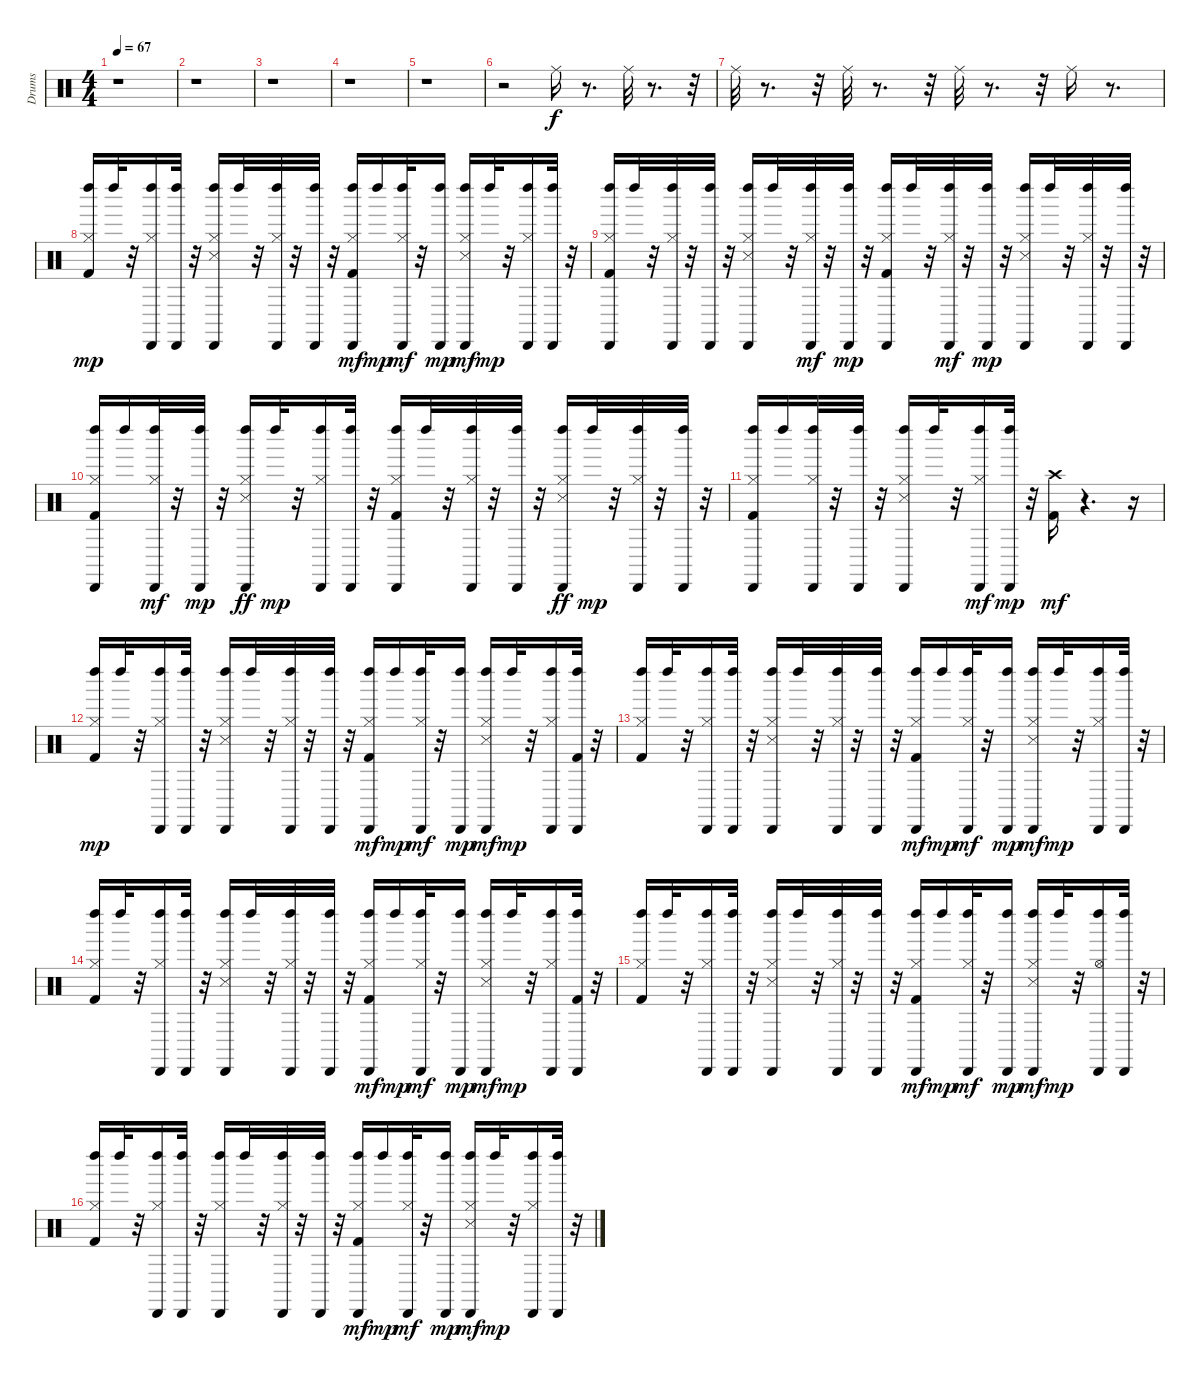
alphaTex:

\track ("Drums" "Drums") {instrument percussion}
\staff {score}
\articulation defaults
\ts (4 4)
\tempo 67
\clef neutral
\ks c
r.1{dy fff} |
r.1 |
r.1 |
r.1 |
r.1 |
r.2 "Ride (middle)".16{dy f} r.8{d} "Ride (middle)".32 r.8{d} r.32 |
"Ride (middle)".32 r.8{d} r.32 "Ride (middle)".32 r.8{d} r.32 "Ride (middle)".32 r.8{d} r.32 "Ride (middle)".16 r.8{d} |
("Kick (hit) 2" "Hi-Hat (closed)" "Left Maraca (hit)").16{dy mp} "Left Maraca (hit)".32 r.32 ("Hi-Hat (closed)" "Cabasa (hit)" "Left Maraca (hit)").16 ("Cabasa (hit)" "Left Maraca (hit)").32 r.32 ("Snare (side stick) 3" "Hi-Hat (closed)" "Cabasa (hit)" "Left Maraca (hit)").16 "Left Maraca (hit)".32 r.32 ("Cabasa (hit)" "Left Maraca (hit)" "Hi-Hat (closed)").32 r.32 ("Cabasa (hit)" "Left Maraca (hit)").32 r.32 ("Hi-Hat (closed)" "Left Maraca (hit)" "Kick (hit) 2" "Cabasa (hit)").16{dy mf} "Left Maraca (hit)".16{dy mp} ("Left Maraca (hit)" "Hi-Hat (closed)" "Cabasa (hit)").32{dy mf} r.32 ("Cabasa (hit)" "Left Maraca (hit)").16{dy mp} ("Left Maraca (hit)" "Snare (side stick) 3" "Hi-Hat (closed)" "Cabasa (hit)").16{dy mf} "Left Maraca (hit)".32{dy mp} r.32 ("Hi-Hat (closed)" "Cabasa (hit)" "Left Maraca (hit)").16 ("Cabasa (hit)" "Left Maraca (hit)").32 r.32 |
("Hi-Hat (closed)" "Cabasa (hit)" "Left Maraca (hit)" "Kick (hit) 2").16 "Left Maraca (hit)".32 r.32 ("Cabasa (hit)" "Left Maraca (hit)" "Hi-Hat (closed)").32 r.32 ("Cabasa (hit)" "Left Maraca (hit)").32 r.32 ("Hi-Hat (closed)" "Cabasa (hit)" "Left Maraca (hit)" "Snare (side stick) 3").16 "Left Maraca (hit)".32 r.32 ("Hi-Hat (closed)" "Left Maraca (hit)" "Cabasa (hit)").32{dy mf} r.32 ("Cabasa (hit)" "Left Maraca (hit)").32{dy mp} r.32 ("Hi-Hat (closed)" "Cabasa (hit)" "Left Maraca (hit)" "Kick (hit) 2").16 "Left Maraca (hit)".32 r.32 ("Hi-Hat (closed)" "Left Maraca (hit)" "Cabasa (hit)").32{dy mf} r.32 ("Cabasa (hit)" "Left Maraca (hit)").32{dy mp} r.32 ("Snare (side stick) 3" "Hi-Hat (closed)" "Cabasa (hit)" "Left Maraca (hit)").16 "Left Maraca (hit)".32 r.32 ("Hi-Hat (closed)" "Cabasa (hit)" "Left Maraca (hit)").32 r.32 ("Cabasa (hit)" "Left Maraca (hit)").32 r.32 |
("Kick (hit) 2" "Hi-Hat (closed)" "Cabasa (hit)" "Left Maraca (hit)").16 "Left Maraca (hit)".16 ("Hi-Hat (closed)" "Left Maraca (hit)" "Cabasa (hit)").32{dy mf} r.32 ("Cabasa (hit)" "Left Maraca (hit)").32{dy mp} r.32 ("Snare (side stick) 3" "Left Maraca (hit)" "Cabasa (hit)" "Hi-Hat (closed)").16{dy ff} "Left Maraca (hit)".32{dy mp} r.32 ("Hi-Hat (closed)" "Cabasa (hit)" "Left Maraca (hit)").16 ("Cabasa (hit)" "Left Maraca (hit)").32 r.32 ("Kick (hit) 2" "Hi-Hat (closed)" "Cabasa (hit)" "Left Maraca (hit)").16 "Left Maraca (hit)".32 r.32 ("Cabasa (hit)" "Left Maraca (hit)" "Hi-Hat (closed)").32 r.32 ("Cabasa (hit)" "Left Maraca (hit)").32 r.32 ("Snare (side stick) 3" "Cabasa (hit)" "Left Maraca (hit)" "Hi-Hat (closed)").16{dy ff} "Left Maraca (hit)".32{dy mp} r.32 ("Hi-Hat (closed)" "Cabasa (hit)" "Left Maraca (hit)").32 r.32 ("Cabasa (hit)" "Left Maraca (hit)").32 r.32 |
("Hi-Hat (closed)" "Cabasa (hit)" "Left Maraca (hit)" "Kick (hit) 2").16 "Left Maraca (hit)".16 ("Cabasa (hit)" "Left Maraca (hit)" "Hi-Hat (closed)").32 r.32 ("Cabasa (hit)" "Left Maraca (hit)").32 r.32 ("Hi-Hat (closed)" "Cabasa (hit)" "Left Maraca (hit)" "Snare (side stick) 3").16 "Left Maraca (hit)".32 r.32 ("Hi-Hat (closed)" "Left Maraca (hit)" "Cabasa (hit)").16{dy mf} ("Cabasa (hit)" "Left Maraca (hit)").32{dy mp} r.32 ("Kick (hit) 2" "Crash high (hit)").16{dy mf} r.4{d} r.16 |
("Kick (hit) 2" "Hi-Hat (closed)" "Left Maraca (hit)").16{dy mp} "Left Maraca (hit)".32 r.32 ("Hi-Hat (closed)" "Cabasa (hit)" "Left Maraca (hit)").16 ("Cabasa (hit)" "Left Maraca (hit)").32 r.32 ("Snare (side stick) 3" "Hi-Hat (closed)" "Cabasa (hit)" "Left Maraca (hit)").16 "Left Maraca (hit)".32 r.32 ("Cabasa (hit)" "Left Maraca (hit)" "Hi-Hat (closed)").32 r.32 ("Cabasa (hit)" "Left Maraca (hit)").32 r.32 ("Hi-Hat (closed)" "Left Maraca (hit)" "Kick (hit) 2" "Cabasa (hit)").16{dy mf} "Left Maraca (hit)".16{dy mp} ("Left Maraca (hit)" "Hi-Hat (closed)" "Cabasa (hit)").32{dy mf} r.32 ("Cabasa (hit)" "Left Maraca (hit)").16{dy mp} ("Left Maraca (hit)" "Snare (side stick) 3" "Hi-Hat (closed)" "Cabasa (hit)").16{dy mf} "Left Maraca (hit)".32{dy mp} r.32 ("Hi-Hat (closed)" "Cabasa (hit)" "Left Maraca (hit)").16 ("Cabasa (hit)" "Kick (hit) 2" "Left Maraca (hit)").32 r.32 |
("Kick (hit) 2" "Hi-Hat (closed)" "Left Maraca (hit)").16 "Left Maraca (hit)".32 r.32 ("Hi-Hat (closed)" "Cabasa (hit)" "Left Maraca (hit)").16 ("Cabasa (hit)" "Left Maraca (hit)").32 r.32 ("Snare (side stick) 3" "Hi-Hat (closed)" "Cabasa (hit)" "Left Maraca (hit)").16 "Left Maraca (hit)".32 r.32 ("Cabasa (hit)" "Left Maraca (hit)" "Hi-Hat (closed)").32 r.32 ("Cabasa (hit)" "Left Maraca (hit)").32 r.32 ("Hi-Hat (closed)" "Left Maraca (hit)" "Kick (hit) 2" "Cabasa (hit)").16{dy mf} "Left Maraca (hit)".16{dy mp} ("Left Maraca (hit)" "Hi-Hat (closed)" "Cabasa (hit)").32{dy mf} r.32 ("Cabasa (hit)" "Left Maraca (hit)").16{dy mp} ("Left Maraca (hit)" "Snare (side stick) 3" "Hi-Hat (closed)" "Cabasa (hit)").16{dy mf} "Left Maraca (hit)".32{dy mp} r.32 ("Hi-Hat (closed)" "Cabasa (hit)" "Left Maraca (hit)").16 ("Cabasa (hit)" "Left Maraca (hit)").32 r.32 |
("Kick (hit) 2" "Hi-Hat (closed)" "Left Maraca (hit)").16 "Left Maraca (hit)".32 r.32 ("Hi-Hat (closed)" "Cabasa (hit)" "Left Maraca (hit)").16 ("Cabasa (hit)" "Left Maraca (hit)").32 r.32 ("Snare (side stick) 3" "Hi-Hat (closed)" "Cabasa (hit)" "Left Maraca (hit)").16 "Left Maraca (hit)".32 r.32 ("Cabasa (hit)" "Left Maraca (hit)" "Hi-Hat (closed)").32 r.32 ("Cabasa (hit)" "Left Maraca (hit)").32 r.32 ("Hi-Hat (closed)" "Left Maraca (hit)" "Kick (hit) 2" "Cabasa (hit)").16{dy mf} "Left Maraca (hit)".16{dy mp} ("Left Maraca (hit)" "Hi-Hat (closed)" "Cabasa (hit)").32{dy mf} r.32 ("Cabasa (hit)" "Left Maraca (hit)").16{dy mp} ("Left Maraca (hit)" "Snare (side stick) 3" "Hi-Hat (closed)" "Cabasa (hit)").16{dy mf} "Left Maraca (hit)".32{dy mp} r.32 ("Hi-Hat (closed)" "Cabasa (hit)" "Left Maraca (hit)").16 ("Cabasa (hit)" "Kick (hit) 2" "Left Maraca (hit)").32 r.32 |
("Kick (hit) 2" "Hi-Hat (closed)" "Left Maraca (hit)").16 "Left Maraca (hit)".32 r.32 ("Hi-Hat (closed)" "Cabasa (hit)" "Left Maraca (hit)").16 ("Cabasa (hit)" "Left Maraca (hit)").32 r.32 ("Snare (side stick) 3" "Hi-Hat (closed)" "Cabasa (hit)" "Left Maraca (hit)").16 "Left Maraca (hit)".32 r.32 ("Cabasa (hit)" "Left Maraca (hit)" "Hi-Hat (closed)").32 r.32 ("Cabasa (hit)" "Left Maraca (hit)").32 r.32 ("Hi-Hat (closed)" "Left Maraca (hit)" "Kick (hit) 2" "Cabasa (hit)").16{dy mf} "Left Maraca (hit)".16{dy mp} ("Left Maraca (hit)" "Hi-Hat (closed)" "Cabasa (hit)").32{dy mf} r.32 ("Cabasa (hit)" "Left Maraca (hit)").16{dy mp} ("Left Maraca (hit)" "Snare (side stick) 3" "Hi-Hat (closed)" "Cabasa (hit)").16{dy mf} "Left Maraca (hit)".32{dy mp} r.32 ("Hi-Hat (open)" "Cabasa (hit)" "Left Maraca (hit)").16 ("Cabasa (hit)" "Left Maraca (hit)").32 r.32 |
("Kick (hit) 2" "Hi-Hat (closed)" "Left Maraca (hit)").16 "Left Maraca (hit)".32 r.32 ("Hi-Hat (closed)" "Cabasa (hit)" "Left Maraca (hit)").16 ("Cabasa (hit)" "Left Maraca (hit)").32 r.32 ("Hi-Hat (closed)" "Cabasa (hit)" "Left Maraca (hit)").16 "Left Maraca (hit)".32 r.32 ("Cabasa (hit)" "Left Maraca (hit)" "Hi-Hat (closed)").32 r.32 ("Cabasa (hit)" "Left Maraca (hit)").32 r.32 ("Hi-Hat (closed)" "Left Maraca (hit)" "Kick (hit) 2" "Cabasa (hit)").16{dy mf} "Left Maraca (hit)".16{dy mp} ("Left Maraca (hit)" "Hi-Hat (closed)" "Cabasa (hit)").32{dy mf} r.32 ("Cabasa (hit)" "Left Maraca (hit)").16{dy mp} ("Left Maraca (hit)" "Snare (side stick) 3" "Hi-Hat (closed)" "Cabasa (hit)").16{dy mf} "Left Maraca (hit)".32{dy mp} r.32 ("Hi-Hat (closed)" "Cabasa (hit)" "Left Maraca (hit)").16 ("Cabasa (hit)" "Left Maraca (hit)").32 r.32
